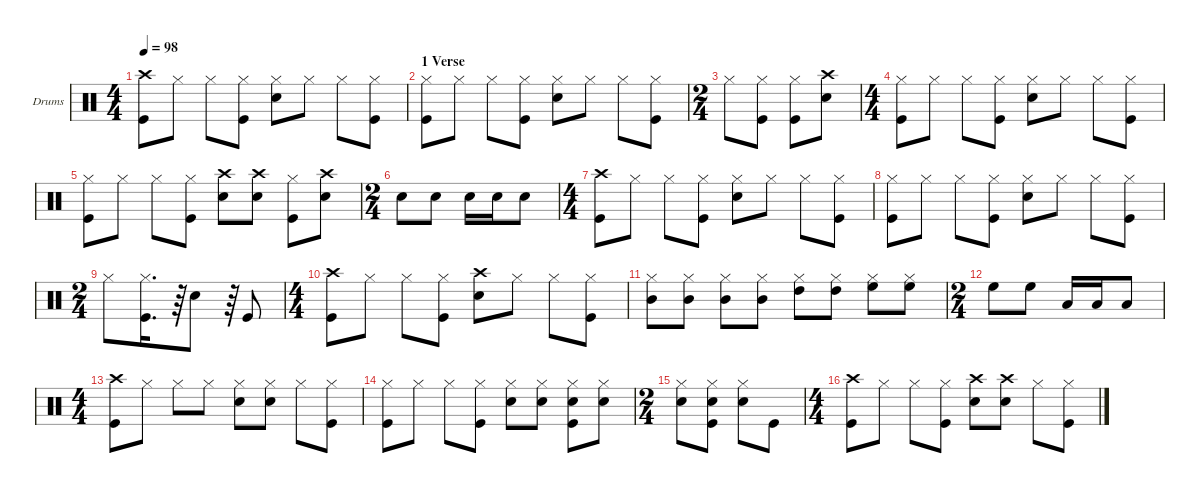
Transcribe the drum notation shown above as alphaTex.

\hideDynamics
\bracketExtendMode groupsimilarinstruments
\firstSystemTrackNameOrientation horizontal
\otherSystemsTrackNameOrientation horizontal
\track ("Drumkit" "Drums") {multiBarRest instrument percussion}
\staff {score}
\articulation defaults
\ts (4 4)
\tempo 98
\clef neutral
\ks c
("Kick (hit)" "Crash high (hit)").8{dy f} "Hi-Hat (closed)".8 "Hi-Hat (closed)".8 ("Kick (hit)" "Hi-Hat (closed)").8 ("Snare (hit) 2" "Hi-Hat (closed)").8 "Hi-Hat (closed)".8 "Hi-Hat (closed)".8 ("Kick (hit)" "Hi-Hat (closed)").8 |
\section ("" "1 Verse")
("Kick (hit)" "Hi-Hat (closed)").8 "Hi-Hat (closed)".8 "Hi-Hat (closed)".8 ("Kick (hit)" "Hi-Hat (closed)").8 ("Hi-Hat (closed)" "Snare (hit) 2").8 "Hi-Hat (closed)".8 "Hi-Hat (closed)".8 ("Kick (hit)" "Hi-Hat (closed)").8 |
\ts (2 4)
"Hi-Hat (closed)".8 ("Hi-Hat (closed)" "Kick (hit)").8 ("Hi-Hat (closed)" "Kick (hit)").8 ("Crash high (hit)" "Snare (hit) 2").8 |
\ts (4 4)
("Kick (hit)" "Hi-Hat (closed)").8 "Hi-Hat (closed)".8 "Hi-Hat (closed)".8 ("Kick (hit)" "Hi-Hat (closed)").8 ("Hi-Hat (closed)" "Snare (hit) 2").8 "Hi-Hat (closed)".8 "Hi-Hat (closed)".8 ("Kick (hit)" "Hi-Hat (closed)").8 |
("Hi-Hat (closed)" "Kick (hit)").8 "Hi-Hat (closed)".8 "Hi-Hat (closed)".8 ("Hi-Hat (closed)" "Kick (hit)").8 ("Crash high (hit)" "Snare (hit) 2").8 ("Crash high (hit)" "Snare (hit) 2").8 ("Hi-Hat (closed)" "Kick (hit)").8 ("Crash high (hit)" "Snare (hit) 2").8 |
\ts (2 4)
"Snare (hit) 2".8 "Snare (hit) 2".8 "Snare (hit) 2".16 "Snare (hit) 2".16 "Snare (hit) 2".8 |
\ts (4 4)
("Kick (hit)" "Crash high (hit)").8 "Hi-Hat (closed)".8 "Hi-Hat (closed)".8 ("Kick (hit)" "Hi-Hat (closed)").8 ("Snare (hit) 2" "Hi-Hat (closed)").8 "Hi-Hat (closed)".8 "Hi-Hat (closed)".8 ("Kick (hit)" "Hi-Hat (closed)").8 |
("Kick (hit)" "Hi-Hat (closed)").8 "Hi-Hat (closed)".8 "Hi-Hat (closed)".8 ("Kick (hit)" "Hi-Hat (closed)").8 ("Hi-Hat (closed)" "Snare (hit) 2").8 "Hi-Hat (closed)".8 "Hi-Hat (closed)".8 ("Kick (hit)" "Hi-Hat (closed)").8 |
\ts (2 4)
"Hi-Hat (closed)".8 ("Kick (hit)" "Hi-Hat (closed)").16{d} r.64 "Snare (hit) 2".8 r.64 "Kick (hit)".8 |
\ts (4 4)
("Crash high (hit)" "Kick (hit)").8 "Hi-Hat (closed)".8 "Hi-Hat (closed)".8 ("Kick (hit)" "Hi-Hat (closed)").8 ("Crash high (hit)" "Snare (hit) 2").8 "Hi-Hat (closed)".8 "Hi-Hat (closed)".8 ("Kick (hit)" "Hi-Hat (closed)").8 |
("Mid Tom (hit)" "Hi-Hat (closed)").8 ("Mid Tom (hit)" "Hi-Hat (closed)").8 ("Mid Tom (hit)" "Hi-Hat (closed)").8 ("Mid Tom (hit)" "Hi-Hat (closed)").8 ("High Tom (hit)" "Hi-Hat (closed)").8 ("High Tom (hit)" "Hi-Hat (closed)").8 ("High Floor Tom (hit)" "Hi-Hat (closed)").8 ("High Floor Tom (hit)" "Hi-Hat (closed)").8 |
\ts (2 4)
"High Floor Tom (hit)".8 "High Floor Tom (hit)".8 "Low Tom (hit)".16 "Low Tom (hit)".16 "Low Tom (hit)".8 |
\ts (4 4)
("Crash high (hit)" "Kick (hit)").8 "Hi-Hat (closed)".8 "Hi-Hat (closed)".8 "Hi-Hat (closed)".8 ("Hi-Hat (closed)" "Snare (hit) 2").8 ("Snare (hit) 2" "Hi-Hat (closed)").8 "Hi-Hat (closed)".8 ("Kick (hit)" "Hi-Hat (closed)").8 |
("Hi-Hat (closed)" "Kick (hit)").8 "Hi-Hat (closed)".8 "Hi-Hat (closed)".8 ("Hi-Hat (closed)" "Kick (hit)").8 ("Snare (hit) 2" "Hi-Hat (closed)").8 ("Snare (hit) 2" "Hi-Hat (closed)").8 ("Snare (hit) 2" "Hi-Hat (closed)" "Kick (hit)").8 ("Snare (hit) 2" "Hi-Hat (closed)").8 |
\ts (2 4)
("Snare (hit) 2" "Hi-Hat (closed)").8 ("Kick (hit)" "Snare (hit) 2" "Hi-Hat (closed)").8 ("Hi-Hat (closed)" "Snare (hit) 2").8 "Kick (hit)".8 |
\ts (4 4)
("Crash high (hit)" "Kick (hit)").8 "Hi-Hat (closed)".8 "Hi-Hat (closed)".8 ("Kick (hit)" "Hi-Hat (closed)").8 ("Crash high (hit)" "Snare (hit) 2").8 ("Crash high (hit)" "Snare (hit) 2").8 "Hi-Hat (closed)".8 ("Kick (hit)" "Hi-Hat (closed)").8
